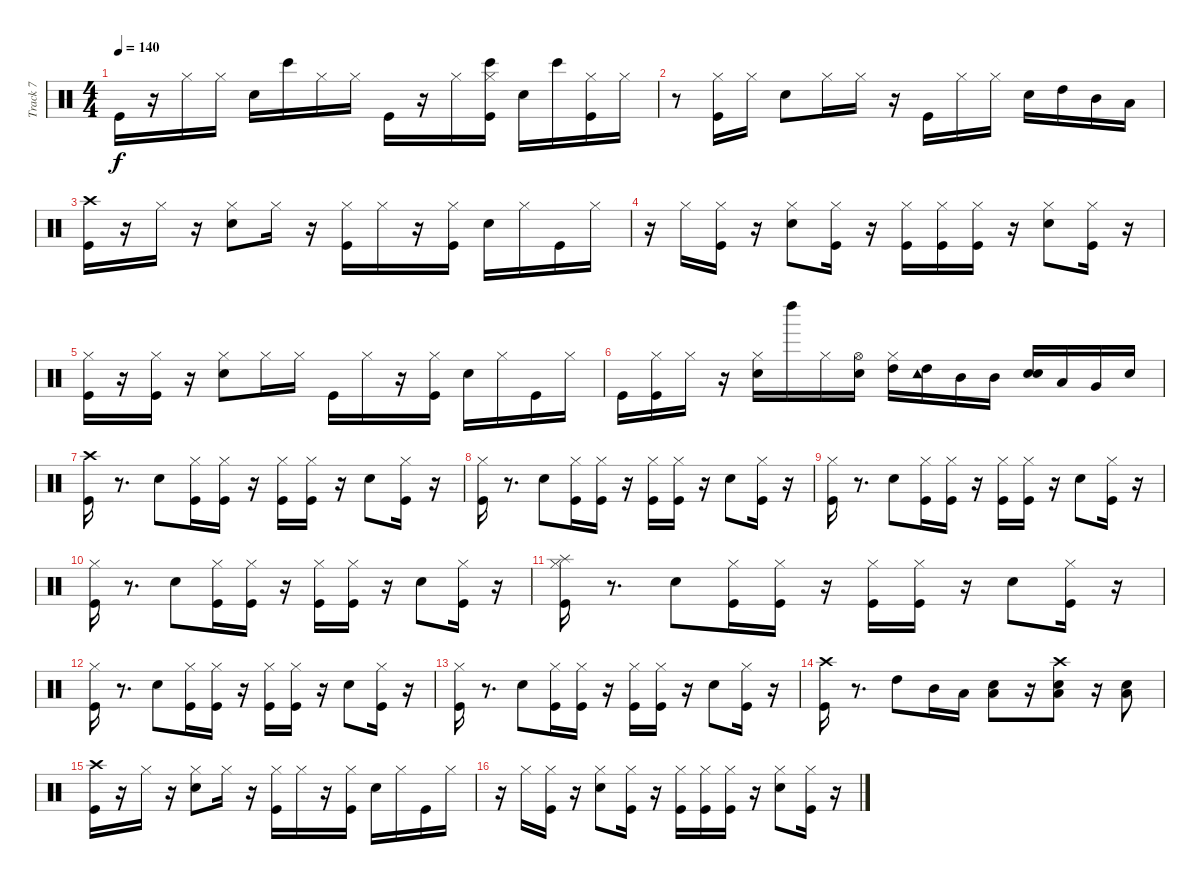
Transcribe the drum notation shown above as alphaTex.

\track ("Track 7" "Track 7") {instrument percussion}
\staff {score}
\articulation defaults
\ts (4 4)
\tempo 140
\clef neutral
\ks c "Kick (hit)".16{dy f}
r.16 "Hi-Hat (closed)".16 "Hi-Hat (closed)".16 "Electric Snare (hit)".16 "Bongo High (hit)".16 "Hi-Hat (closed)".16 "Hi-Hat (closed)".16 "Kick (hit)".16 r.16 "Hi-Hat (closed)".16 ("Kick (hit)" "Hi-Hat (closed)" "Bongo High (hit)").16 "Electric Snare (hit)".16 "Bongo High (hit)".16 ("Hi-Hat (closed)" "Kick (hit)").16 "Hi-Hat (closed)".16 |
r.8 ("Hi-Hat (closed)" "Kick (hit)").16 "Hi-Hat (closed)".16 "Electric Snare (hit)".8 "Hi-Hat (closed)".16 "Hi-Hat (closed)".16 r.16 "Kick (hit)".16 "Hi-Hat (closed)".16 "Hi-Hat (closed)".16 "Electric Snare (hit)".16 "High Tom (hit)".16 "Mid Tom (hit)".16 "Low Tom (hit)".16 |
("Crash high (hit)" "Kick (hit)").16 r.16 "Hi-Hat (closed)".16 r.16 ("Hi-Hat (closed)" "Electric Snare (hit)").8 "Hi-Hat (closed)".16 r.16 ("Hi-Hat (closed)" "Kick (hit)").16 "Hi-Hat (closed)".16 r.16 ("Kick (hit)" "Hi-Hat (closed)").16 "Electric Snare (hit)".16 "Hi-Hat (closed)".16 "Kick (hit)".16 "Hi-Hat (closed)".16 |
r.16 "Hi-Hat (closed)".16 ("Hi-Hat (closed)" "Kick (hit)").16 r.16 ("Hi-Hat (closed)" "Electric Snare (hit)").8 ("Hi-Hat (closed)" "Kick (hit)").16 r.16 ("Hi-Hat (closed)" "Kick (hit)").16 ("Kick (hit)" "Hi-Hat (closed)").16 ("Hi-Hat (closed)" "Kick (hit)").16 r.16 ("Hi-Hat (closed)" "Electric Snare (hit)").8 ("Hi-Hat (closed)" "Kick (hit)").16 r.16 |
("Hi-Hat (closed)" "Kick (hit)").16 r.16 ("Hi-Hat (closed)" "Kick (hit)").16 r.16 ("Hi-Hat (closed)" "Electric Snare (hit)").8 "Hi-Hat (closed)".16 "Hi-Hat (closed)".16 "Kick (hit)".16 "Hi-Hat (closed)".16 r.16 ("Kick (hit)" "Hi-Hat (closed)").16 "Electric Snare (hit)".16 "Hi-Hat (closed)".16 "Kick (hit)".16 "Hi-Hat (closed)".16 |
"Kick (hit)".16 ("Kick (hit)" "Hi-Hat (closed)").16 "Hi-Hat (closed)".16 r.16 ("Hi-Hat (closed)" "Electric Snare (hit)").16 "Left Maraca (hit)".16 "Hi-Hat (closed)".16 ("Hi-Hat (open)" "Electric Snare (hit)").16 ("Hi-Hat (closed)" "High Tom (hit)").16 ("Tambourine (hit)" "High Tom (hit)").16 "Mid Tom (hit)".16 "Mid Tom (hit)".16 ("Electric Snare (hit)" "Electric Snare (hit)").16 "Low Tom (hit)".16 "Very Low Tom (hit)".16 "Electric Snare (hit)".16 |
("Kick (hit)" "Crash high (hit)").16 r.8{d} "Electric Snare (hit)".8 ("Kick (hit)" "Hi-Hat (closed)").16 ("Hi-Hat (closed)" "Kick (hit)").16 r.16 ("Hi-Hat (closed)" "Kick (hit)").16 ("Kick (hit)" "Hi-Hat (closed)").16 r.16 "Electric Snare (hit)".8 ("Kick (hit)" "Hi-Hat (closed)").16 r.16 |
("Kick (hit)" "Hi-Hat (closed)").16 r.8{d} "Electric Snare (hit)".8 ("Hi-Hat (closed)" "Kick (hit)").16 ("Kick (hit)" "Hi-Hat (closed)").16 r.16 ("Kick (hit)" "Hi-Hat (closed)").16 ("Kick (hit)" "Hi-Hat (closed)").16 r.16 "Electric Snare (hit)".8 ("Kick (hit)" "Hi-Hat (closed)").16 r.16 |
("Kick (hit)" "Hi-Hat (closed)").16 r.8{d} "Electric Snare (hit)".8 ("Hi-Hat (closed)" "Kick (hit)").16 ("Kick (hit)" "Hi-Hat (closed)").16 r.16 ("Kick (hit)" "Hi-Hat (closed)").16 ("Kick (hit)" "Hi-Hat (closed)").16 r.16 "Electric Snare (hit)".8 ("Kick (hit)" "Hi-Hat (closed)").16 r.16 |
("Kick (hit)" "Hi-Hat (closed)").16 r.8{d} "Electric Snare (hit)".8 ("Hi-Hat (closed)" "Kick (hit)").16 ("Kick (hit)" "Hi-Hat (closed)").16 r.16 ("Kick (hit)" "Hi-Hat (closed)").16 ("Kick (hit)" "Hi-Hat (closed)").16 r.16 "Electric Snare (hit)".8 ("Kick (hit)" "Hi-Hat (closed)").16 r.16 |
("Splash (hit)" "Kick (hit)" "Hi-Hat (closed)").16 r.8{d} "Electric Snare (hit)".8 ("Hi-Hat (closed)" "Kick (hit)").16 ("Kick (hit)" "Hi-Hat (closed)").16 r.16 ("Kick (hit)" "Hi-Hat (closed)").16 ("Kick (hit)" "Hi-Hat (closed)").16 r.16 "Electric Snare (hit)".8 ("Kick (hit)" "Hi-Hat (closed)").16 r.16 |
("Kick (hit)" "Hi-Hat (closed)").16 r.8{d} "Electric Snare (hit)".8 ("Hi-Hat (closed)" "Kick (hit)").16 ("Kick (hit)" "Hi-Hat (closed)").16 r.16 ("Kick (hit)" "Hi-Hat (closed)").16 ("Kick (hit)" "Hi-Hat (closed)").16 r.16 "Electric Snare (hit)".8 ("Kick (hit)" "Hi-Hat (closed)").16 r.16 |
("Kick (hit)" "Hi-Hat (closed)").16 r.8{d} "Electric Snare (hit)".8 ("Hi-Hat (closed)" "Kick (hit)").16 ("Kick (hit)" "Hi-Hat (closed)").16 r.16 ("Kick (hit)" "Hi-Hat (closed)").16 ("Kick (hit)" "Hi-Hat (closed)").16 r.16 "Electric Snare (hit)".8 ("Kick (hit)" "Hi-Hat (closed)").16 r.16 |
("Kick (hit)" "Crash high (hit)").16 r.8{d} "High Tom (hit)".8 "Mid Tom (hit)".16 "Low Tom (hit)".16 ("Electric Snare (hit)" "Low Floor Tom (hit)").8 r.16 ("Crash high (hit)" "Electric Snare (hit)" "Low Floor Tom (hit)").8 r.16 ("Low Floor Tom (hit)" "Electric Snare (hit)").8 |
("Crash high (hit)" "Kick (hit)").16 r.16 "Hi-Hat (closed)".16 r.16 ("Hi-Hat (closed)" "Electric Snare (hit)").8 "Hi-Hat (closed)".16 r.16 ("Hi-Hat (closed)" "Kick (hit)").16 "Hi-Hat (closed)".16 r.16 ("Kick (hit)" "Hi-Hat (closed)").16 "Electric Snare (hit)".16 "Hi-Hat (closed)".16 "Kick (hit)".16 "Hi-Hat (closed)".16 |
r.16 "Hi-Hat (closed)".16 ("Hi-Hat (closed)" "Kick (hit)").16 r.16 ("Hi-Hat (closed)" "Electric Snare (hit)").8 ("Hi-Hat (closed)" "Kick (hit)").16 r.16 ("Hi-Hat (closed)" "Kick (hit)").16 ("Kick (hit)" "Hi-Hat (closed)").16 ("Hi-Hat (closed)" "Kick (hit)").16 r.16 ("Hi-Hat (closed)" "Electric Snare (hit)").8 ("Hi-Hat (closed)" "Kick (hit)").16 r.16
